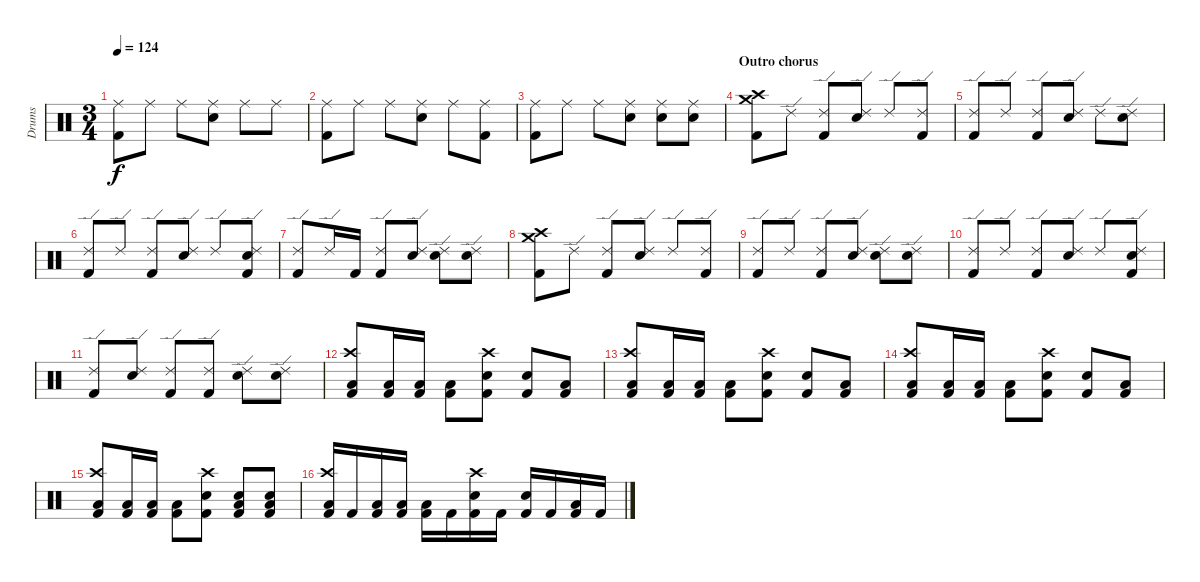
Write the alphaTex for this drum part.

\track ("Drums" "Drums") {instrument percussion}
\staff {score}
\articulation defaults
\ts (3 4)
\tempo 124
\clef neutral
\ks c
("Ride (middle)" "Kick (hit) 2").8{dy f} "Ride (middle)".8 "Ride (middle)".8 ("Ride (middle)" "Electric Snare (hit)").8 "Ride (middle)".8 "Ride (middle)".8 |
("Ride (middle)" "Kick (hit) 2").8 "Ride (middle)".8 "Ride (middle)".8 ("Ride (middle)" "Electric Snare (hit)").8 "Ride (middle)".8 ("Ride (middle)" "Kick (hit) 2").8 |
("Ride (middle)" "Kick (hit) 2").8 "Ride (middle)".8 "Ride (middle)".8 ("Ride (middle)" "Electric Snare (hit)").8 ("Ride (middle)" "Electric Snare (hit)").8 ("Ride (middle)" "Electric Snare (hit)").8 |
\section ("" "Outro chorus")
("Crash high (hit)" "Crash medium (hit)" "Kick (hit) 2").8 "Ride (edge) 2".8 ("Ride (edge) 2" "Kick (hit) 2").8 ("Ride (edge) 2" "Electric Snare (hit)").8 "Ride (edge) 2".8 ("Ride (edge) 2" "Kick (hit) 2").8 |
("Ride (edge) 2" "Kick (hit) 2").8 "Ride (edge) 2".8 ("Ride (edge) 2" "Kick (hit) 2").8 ("Ride (edge) 2" "Electric Snare (hit)").8 "Ride (edge) 2".8 ("Ride (edge) 2" "Electric Snare (hit)").8 |
("Ride (edge) 2" "Kick (hit) 2").8 "Ride (edge) 2".8 ("Ride (edge) 2" "Kick (hit) 2").8 ("Ride (edge) 2" "Electric Snare (hit)").8 "Ride (edge) 2".8 ("Ride (edge) 2" "Electric Snare (hit)" "Kick (hit) 2").8 |
("Ride (edge) 2" "Kick (hit) 2").8 "Ride (edge) 2".16 "Kick (hit) 2".16 ("Ride (edge) 2" "Kick (hit) 2").8 ("Ride (edge) 2" "Electric Snare (hit)").8 ("Ride (edge) 2" "Electric Snare (hit)").8 ("Ride (edge) 2" "Electric Snare (hit)").8 |
("Crash high (hit)" "Crash medium (hit)" "Kick (hit) 2").8 "Ride (edge) 2".8 ("Ride (edge) 2" "Kick (hit) 2").8 ("Ride (edge) 2" "Electric Snare (hit)").8 "Ride (edge) 2".8 ("Ride (edge) 2" "Kick (hit) 2").8 |
("Ride (edge) 2" "Kick (hit) 2").8 "Ride (edge) 2".8 ("Ride (edge) 2" "Kick (hit) 2").8 ("Ride (edge) 2" "Electric Snare (hit)").8 ("Ride (edge) 2" "Electric Snare (hit)").8 ("Ride (edge) 2" "Electric Snare (hit)").8 |
("Ride (edge) 2" "Kick (hit) 2").8 "Ride (edge) 2".8 ("Ride (edge) 2" "Kick (hit) 2").8 ("Ride (edge) 2" "Electric Snare (hit)").8 "Ride (edge) 2".8 ("Ride (edge) 2" "Electric Snare (hit)" "Kick (hit) 2").8 |
("Ride (edge) 2" "Kick (hit) 2").8 ("Ride (edge) 2" "Electric Snare (hit)").8 ("Ride (edge) 2" "Kick (hit) 2").8 ("Ride (edge) 2" "Kick (hit) 2").8 ("Ride (edge) 2" "Electric Snare (hit)").8 ("Ride (edge) 2" "Electric Snare (hit)").8 |
("Crash high (hit)" "Low Tom (hit)" "Kick (hit) 2").8 ("Low Tom (hit)" "Kick (hit) 2").16 ("Low Tom (hit)" "Kick (hit) 2").16 ("Low Tom (hit)" "Kick (hit) 2").8 ("Crash high (hit)" "Electric Snare (hit)" "Kick (hit) 2").8 ("Electric Snare (hit)" "Kick (hit) 2").8 ("Low Tom (hit)" "Kick (hit) 2").8 |
("Crash high (hit)" "Low Tom (hit)" "Kick (hit) 2").8 ("Low Tom (hit)" "Kick (hit) 2").16 ("Low Tom (hit)" "Kick (hit) 2").16 ("Low Tom (hit)" "Kick (hit) 2").8 ("Crash high (hit)" "Electric Snare (hit)" "Kick (hit) 2").8 ("Electric Snare (hit)" "Kick (hit) 2").8 ("Low Tom (hit)" "Kick (hit) 2").8 |
("Crash high (hit)" "Low Tom (hit)" "Kick (hit) 2").8 ("Low Tom (hit)" "Kick (hit) 2").16 ("Low Tom (hit)" "Kick (hit) 2").16 ("Low Tom (hit)" "Kick (hit) 2").8 ("Crash high (hit)" "Electric Snare (hit)" "Kick (hit) 2").8 ("Electric Snare (hit)" "Kick (hit) 2").8 ("Low Tom (hit)" "Kick (hit) 2").8 |
("Crash high (hit)" "Low Tom (hit)" "Kick (hit) 2").8 ("Low Tom (hit)" "Kick (hit) 2").16 ("Low Tom (hit)" "Kick (hit) 2").16 ("Low Tom (hit)" "Kick (hit) 2").8 ("Crash high (hit)" "Electric Snare (hit)" "Kick (hit) 2").8 ("Low Tom (hit)" "Electric Snare (hit)" "Kick (hit) 2").8 ("Low Tom (hit)" "Electric Snare (hit)" "Kick (hit) 2").8 |
("Crash high (hit)" "Low Tom (hit)" "Kick (hit) 2").16 "Kick (hit) 2".16 ("Low Tom (hit)" "Kick (hit) 2").16 ("Low Tom (hit)" "Kick (hit) 2").16 ("Low Tom (hit)" "Kick (hit) 2").16 "Kick (hit) 2".16 ("Crash high (hit)" "Electric Snare (hit)" "Kick (hit) 2").16 "Kick (hit) 2".16 ("Electric Snare (hit)" "Kick (hit) 2").16 "Kick (hit) 2".16 ("Low Tom (hit)" "Kick (hit) 2").16 "Kick (hit) 2".16
